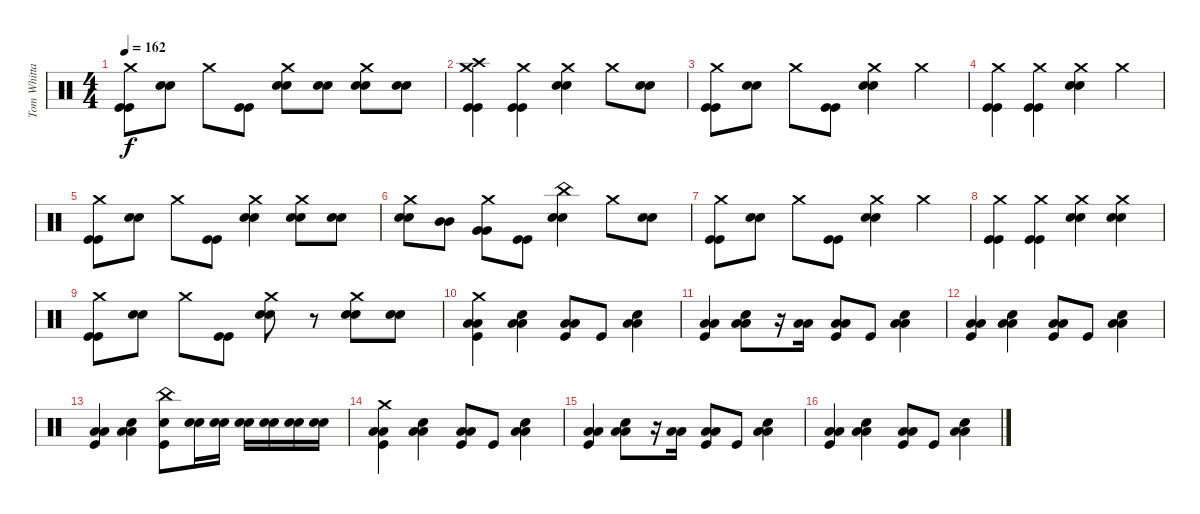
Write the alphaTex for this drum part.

\track ("Tom Whittaker" "Tom Whitta") {instrument percussion}
\staff {score}
\articulation defaults
\ts (4 4)
\tempo 162
\clef neutral
\ks c
("Crash medium (hit)" "Kick (hit)" "Kick (hit)").8{dy f} ("Electric Snare (hit)" "Electric Snare (hit)").8 "Crash medium (hit)".8 ("Kick (hit)" "Kick (hit)").8 ("Crash medium (hit)" "Electric Snare (hit)" "Electric Snare (hit)").8 ("Electric Snare (hit)" "Electric Snare (hit)").8 ("Crash medium (hit)" "Electric Snare (hit)" "Electric Snare (hit)").8 ("Electric Snare (hit)" "Electric Snare (hit)").8 |
("Crash medium (hit)" "Crash high (hit)" "Kick (hit)" "Kick (hit)").4 ("Crash medium (hit)" "Kick (hit)" "Kick (hit)").4 ("Crash medium (hit)" "Electric Snare (hit)" "Electric Snare (hit)").4 "Crash medium (hit)".8 ("Electric Snare (hit)" "Electric Snare (hit)").8 |
("Crash medium (hit)" "Kick (hit)" "Kick (hit)").8 ("Electric Snare (hit)" "Electric Snare (hit)").8 "Crash medium (hit)".8 ("Kick (hit)" "Kick (hit)").8 ("Crash medium (hit)" "Electric Snare (hit)" "Electric Snare (hit)").4 "Crash medium (hit)".4 |
("Crash medium (hit)" "Kick (hit)" "Kick (hit)").4 ("Crash medium (hit)" "Kick (hit)" "Kick (hit)").4 ("Crash medium (hit)" "Electric Snare (hit)" "Electric Snare (hit)").4 "Crash medium (hit)".4 |
("Crash medium (hit)" "Kick (hit)" "Kick (hit)").8 ("Electric Snare (hit)" "Electric Snare (hit)").8 "Crash medium (hit)".8 ("Kick (hit)" "Kick (hit)").8 ("Crash medium (hit)" "Electric Snare (hit)" "Electric Snare (hit)").4 ("Crash medium (hit)" "Electric Snare (hit)" "Electric Snare (hit)").8 ("Electric Snare (hit)" "Electric Snare (hit)").8 |
("Crash medium (hit)" "Electric Snare (hit)" "Electric Snare (hit)").8 ("Mid Tom (hit)" "Mid Tom (hit)").8 ("Crash medium (hit)" "Very Low Tom (hit)" "Very Low Tom (hit)").8 ("Kick (hit)" "Kick (hit)").8 ("China (hit)" "Electric Snare (hit)" "Electric Snare (hit)").4 "Crash medium (hit)".8 ("Electric Snare (hit)" "Electric Snare (hit)").8 |
("Crash medium (hit)" "Kick (hit)" "Kick (hit)").8 ("Electric Snare (hit)" "Electric Snare (hit)").8 "Crash medium (hit)".8 ("Kick (hit)" "Kick (hit)").8 ("Crash medium (hit)" "Electric Snare (hit)" "Electric Snare (hit)").4 "Crash medium (hit)".4 |
("Crash medium (hit)" "Kick (hit)" "Kick (hit)").4 ("Crash medium (hit)" "Kick (hit)" "Kick (hit)").4 ("Crash medium (hit)" "Electric Snare (hit)" "Electric Snare (hit)").4 ("Crash medium (hit)" "Electric Snare (hit)" "Electric Snare (hit)").4 |
("Crash medium (hit)" "Kick (hit)" "Kick (hit)").8 ("Electric Snare (hit)" "Electric Snare (hit)").8 "Crash medium (hit)".8 ("Kick (hit)" "Kick (hit)").8 ("Crash medium (hit)" "Electric Snare (hit)" "Electric Snare (hit)").8 r.8 ("Crash medium (hit)" "Electric Snare (hit)" "Electric Snare (hit)").8 ("Electric Snare (hit)" "Electric Snare (hit)").8 |
("Crash medium (hit)" "Kick (hit)" "Low Floor Tom (hit)" "Low Floor Tom (hit)").4 ("Electric Snare (hit)" "Low Floor Tom (hit)" "Low Floor Tom (hit)").4 ("Kick (hit)" "Low Floor Tom (hit)" "Low Floor Tom (hit)").8 "Kick (hit)".8 ("Electric Snare (hit)" "Low Floor Tom (hit)" "Low Floor Tom (hit)").4 |
("Kick (hit)" "Low Floor Tom (hit)" "Low Floor Tom (hit)").4 ("Electric Snare (hit)" "Low Floor Tom (hit)" "Low Floor Tom (hit)").8 r.16 ("Low Floor Tom (hit)" "Low Floor Tom (hit)").16 ("Kick (hit)" "Low Floor Tom (hit)" "Low Floor Tom (hit)").8 "Kick (hit)".8 ("Electric Snare (hit)" "Low Floor Tom (hit)" "Low Floor Tom (hit)").4 |
("Kick (hit)" "Low Floor Tom (hit)" "Low Floor Tom (hit)").4 ("Electric Snare (hit)" "Low Floor Tom (hit)" "Low Floor Tom (hit)").4 ("Kick (hit)" "Low Floor Tom (hit)" "Low Floor Tom (hit)").8 "Kick (hit)".8 ("Electric Snare (hit)" "Low Floor Tom (hit)" "Low Floor Tom (hit)").4 |
("Kick (hit)" "Low Floor Tom (hit)" "Low Floor Tom (hit)").4 ("Electric Snare (hit)" "Low Floor Tom (hit)" "Low Floor Tom (hit)").4 ("China (hit)" "Electric Snare (hit)" "Kick (hit)").8 ("Electric Snare (hit)" "Electric Snare (hit)").16 ("Electric Snare (hit)" "Electric Snare (hit)").16 ("Electric Snare (hit)" "Electric Snare (hit)").16 ("Electric Snare (hit)" "Electric Snare (hit)").16 ("Electric Snare (hit)" "Electric Snare (hit)").16 ("Electric Snare (hit)" "Electric Snare (hit)").16 |
("Crash medium (hit)" "Kick (hit)" "Low Floor Tom (hit)" "Low Floor Tom (hit)").4 ("Electric Snare (hit)" "Low Floor Tom (hit)" "Low Floor Tom (hit)").4 ("Kick (hit)" "Low Floor Tom (hit)" "Low Floor Tom (hit)").8 "Kick (hit)".8 ("Electric Snare (hit)" "Low Floor Tom (hit)" "Low Floor Tom (hit)").4 |
("Kick (hit)" "Low Floor Tom (hit)" "Low Floor Tom (hit)").4 ("Electric Snare (hit)" "Low Floor Tom (hit)" "Low Floor Tom (hit)").8 r.16 ("Low Floor Tom (hit)" "Low Floor Tom (hit)").16 ("Kick (hit)" "Low Floor Tom (hit)" "Low Floor Tom (hit)").8 "Kick (hit)".8 ("Electric Snare (hit)" "Low Floor Tom (hit)" "Low Floor Tom (hit)").4 |
("Kick (hit)" "Low Floor Tom (hit)" "Low Floor Tom (hit)").4 ("Electric Snare (hit)" "Low Floor Tom (hit)" "Low Floor Tom (hit)").4 ("Kick (hit)" "Low Floor Tom (hit)" "Low Floor Tom (hit)").8 "Kick (hit)".8 ("Electric Snare (hit)" "Low Floor Tom (hit)" "Low Floor Tom (hit)").4
